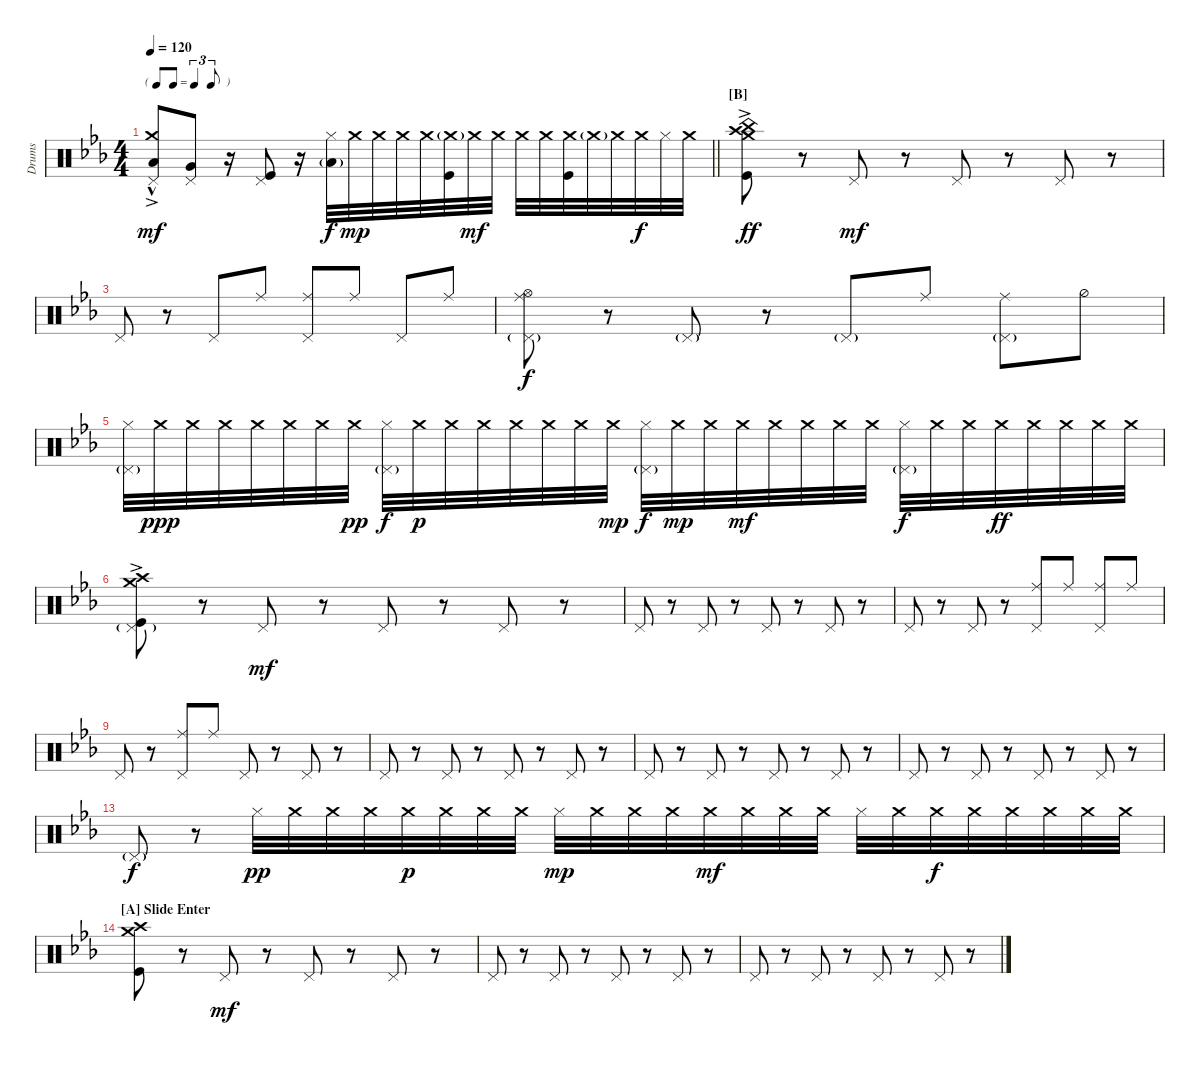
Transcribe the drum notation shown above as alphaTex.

\bracketExtendMode nobrackets
\otherSystemsTrackNameOrientation horizontal
\defaultBarNumberDisplay FirstOfSystem
\track ("Drumkit" "Drums") {instrument percussion}
\staff {score}
\articulation defaults
\ts (4 4)
\tf triplet8th
\tempo 120
\clef neutral
\barLineRight lightlight
\ks cminor
("Low Tom (hit)" "Crash medium (hit)"{hac} "Pedal Hi-Hat (hit)"{ac}).8{dy mf} ("Pedal Hi-Hat (hit)" "Very Low Tom (hit)").8 r.16 ("Kick (hit)" "Pedal Hi-Hat (hit)").8 r.16 ("Hi-Hat (closed)" "Low Tom (hit)"{g}).32{dy f} "Crash medium (hit)".32{dy mp} "Crash medium (hit)".32 "Crash medium (hit)".32 "Crash medium (hit)".32 ("Crash medium (hit)"{g} "Kick (hit)").32 "Crash medium (hit)".32{dy mf} "Crash medium (hit)".32 "Crash medium (hit)".32 "Crash medium (hit)".32 ("Kick (hit)" "Crash medium (hit)").32 "Crash medium (hit)"{g}.32 "Crash medium (hit)".32 "Crash medium (hit)".32{dy f} "Hi-Hat (closed)".32 "Crash medium (hit)".32 |
\section ("B" "")
("Kick (hit)" "Crash medium (hit)" "Crash high (hit)"{ac} "China (hit)").8{dy ff} r.8 "Pedal Hi-Hat (hit)".8{dy mf} r.8 "Pedal Hi-Hat (hit)".8 r.8 "Pedal Hi-Hat (hit)".8 r.8 |
"Pedal Hi-Hat (hit)".8 r.8 "Pedal Hi-Hat (hit)".8 "Ride (middle)".8 ("Pedal Hi-Hat (hit)" "Ride (middle)").8 "Ride (middle)".8 "Pedal Hi-Hat (hit)".8 "Ride (middle)".8 |
("Pedal Hi-Hat (hit)"{g} "Hi-Hat (open)" "Ride (middle)").8{dy f} r.8 "Pedal Hi-Hat (hit)"{g}.8 r.8 "Pedal Hi-Hat (hit)"{g}.8 "Ride (middle)".8 ("Pedal Hi-Hat (hit)"{g} "Ride (middle)").8 "Hi-Hat (half)".8 |
("Pedal Hi-Hat (hit)"{g} "Hi-Hat (closed)").32 "Crash medium (hit)".32{dy ppp} "Crash medium (hit)".32 "Crash medium (hit)".32 "Crash medium (hit)".32 "Crash medium (hit)".32 "Crash medium (hit)".32 "Crash medium (hit)".32{dy pp} ("Pedal Hi-Hat (hit)"{g} "Hi-Hat (closed)").32{dy f} "Crash medium (hit)".32{dy p} "Crash medium (hit)".32 "Crash medium (hit)".32 "Crash medium (hit)".32 "Crash medium (hit)".32 "Crash medium (hit)".32 "Crash medium (hit)".32{dy mp} ("Pedal Hi-Hat (hit)"{g} "Hi-Hat (closed)").32{dy f} "Crash medium (hit)".32{dy mp} "Crash medium (hit)".32 "Crash medium (hit)".32{dy mf} "Crash medium (hit)".32 "Crash medium (hit)".32 "Crash medium (hit)".32 "Crash medium (hit)".32 ("Pedal Hi-Hat (hit)"{g} "Hi-Hat (closed)").32{dy f} "Crash medium (hit)".32 "Crash medium (hit)".32 "Crash medium (hit)".32{dy ff} "Crash medium (hit)".32 "Crash medium (hit)".32 "Crash medium (hit)".32 "Crash medium (hit)".32 |
("Pedal Hi-Hat (hit)"{g} "Kick (hit)" "Crash medium (hit)" "Crash high (hit)"{ac}).8 r.8 "Pedal Hi-Hat (hit)".8{dy mf} r.8 "Pedal Hi-Hat (hit)".8 r.8 "Pedal Hi-Hat (hit)".8 r.8 |
"Pedal Hi-Hat (hit)".8 r.8 "Pedal Hi-Hat (hit)".8 r.8 "Pedal Hi-Hat (hit)".8 r.8 "Pedal Hi-Hat (hit)".8 r.8 |
"Pedal Hi-Hat (hit)".8 r.8 "Pedal Hi-Hat (hit)".8 r.8 ("Pedal Hi-Hat (hit)" "Ride (middle)").8 "Ride (middle)".8 ("Pedal Hi-Hat (hit)" "Ride (middle)").8 "Ride (middle)".8 |
"Pedal Hi-Hat (hit)".8 r.8 ("Pedal Hi-Hat (hit)" "Ride (middle)").8 "Ride (middle)".8 "Pedal Hi-Hat (hit)".8 r.8 "Pedal Hi-Hat (hit)".8 r.8 |
"Pedal Hi-Hat (hit)".8 r.8 "Pedal Hi-Hat (hit)".8 r.8 "Pedal Hi-Hat (hit)".8 r.8 "Pedal Hi-Hat (hit)".8 r.8 |
"Pedal Hi-Hat (hit)".8 r.8 "Pedal Hi-Hat (hit)".8 r.8 "Pedal Hi-Hat (hit)".8 r.8 "Pedal Hi-Hat (hit)".8 r.8 |
"Pedal Hi-Hat (hit)".8 r.8 "Pedal Hi-Hat (hit)".8 r.8 "Pedal Hi-Hat (hit)".8 r.8 "Pedal Hi-Hat (hit)".8 r.8 |
"Pedal Hi-Hat (hit)"{g}.8{dy f} r.8 "Hi-Hat (closed)".32{dy pp} "Crash medium (hit)".32 "Crash medium (hit)".32 "Crash medium (hit)".32 "Crash medium (hit)".32{dy p} "Crash medium (hit)".32 "Crash medium (hit)".32 "Crash medium (hit)".32 "Hi-Hat (closed)".32{dy mp} "Crash medium (hit)".32 "Crash medium (hit)".32 "Crash medium (hit)".32 "Crash medium (hit)".32{dy mf} "Crash medium (hit)".32 "Crash medium (hit)".32 "Crash medium (hit)".32 "Hi-Hat (closed)".32 "Crash medium (hit)".32 "Crash medium (hit)".32{dy f} "Crash medium (hit)".32 "Crash medium (hit)".32 "Crash medium (hit)".32 "Crash medium (hit)".32 "Crash medium (hit)".32 |
\section ("A" "Slide Enter")
("Kick (hit)" "Crash medium (hit)" "Crash high (hit)").8 r.8 "Pedal Hi-Hat (hit)".8{dy mf} r.8 "Pedal Hi-Hat (hit)".8 r.8 "Pedal Hi-Hat (hit)".8 r.8 |
"Pedal Hi-Hat (hit)".8 r.8 "Pedal Hi-Hat (hit)".8 r.8 "Pedal Hi-Hat (hit)".8 r.8 "Pedal Hi-Hat (hit)".8 r.8 |
"Pedal Hi-Hat (hit)".8 r.8 "Pedal Hi-Hat (hit)".8 r.8 "Pedal Hi-Hat (hit)".8 r.8 "Pedal Hi-Hat (hit)".8 r.8
